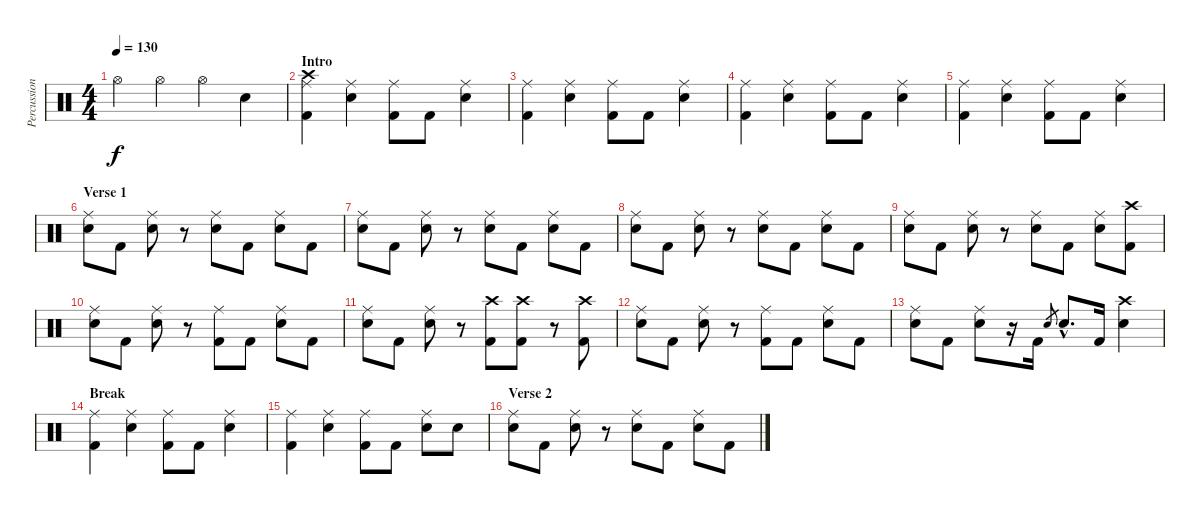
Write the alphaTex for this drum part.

\track ("Percussion" "Percussion") {instrument percussion}
\staff {score}
\articulation defaults
\ts (4 4)
\tempo 130
\clef neutral
\ks c "Hi-Hat (open)".4{dy f} "Hi-Hat (open)".4 "Hi-Hat (open)".4 "Electric Snare (hit)".4
|
\section ("" "Intro")
("Ride (middle)" "Crash high (hit)" "Kick (hit) 2").4 ("Ride (middle)" "Electric Snare (hit)").4 ("Ride (middle)" "Kick (hit) 2").8 "Kick (hit) 2".8 ("Ride (middle)" "Electric Snare (hit)").4 |
("Ride (middle)" "Kick (hit) 2").4 ("Ride (middle)" "Electric Snare (hit)").4 ("Ride (middle)" "Kick (hit) 2").8 "Kick (hit) 2".8 ("Ride (middle)" "Electric Snare (hit)").4 |
("Ride (middle)" "Kick (hit) 2").4 ("Ride (middle)" "Electric Snare (hit)").4 ("Ride (middle)" "Kick (hit) 2").8 "Kick (hit) 2".8 ("Ride (middle)" "Electric Snare (hit)").4 |
("Ride (middle)" "Kick (hit) 2").4 ("Ride (middle)" "Electric Snare (hit)").4 ("Ride (middle)" "Kick (hit) 2").8 "Kick (hit) 2".8 ("Ride (middle)" "Electric Snare (hit)").4 |
\section ("" "Verse 1")
("Ride (middle)" "Electric Snare (hit)").8 "Kick (hit) 2".8 ("Ride (middle)" "Electric Snare (hit)").8 r.8 ("Ride (middle)" "Electric Snare (hit)").8 "Kick (hit) 2".8 ("Ride (middle)" "Electric Snare (hit)").8 "Kick (hit) 2".8 |
("Ride (middle)" "Electric Snare (hit)").8 "Kick (hit) 2".8 ("Ride (middle)" "Electric Snare (hit)").8 r.8 ("Ride (middle)" "Electric Snare (hit)").8 "Kick (hit) 2".8 ("Ride (middle)" "Electric Snare (hit)").8 "Kick (hit) 2".8 |
("Ride (middle)" "Electric Snare (hit)").8 "Kick (hit) 2".8 ("Ride (middle)" "Electric Snare (hit)").8 r.8 ("Ride (middle)" "Electric Snare (hit)").8 "Kick (hit) 2".8 ("Ride (middle)" "Electric Snare (hit)").8 "Kick (hit) 2".8 |
("Ride (middle)" "Electric Snare (hit)").8 "Kick (hit) 2".8 ("Ride (middle)" "Electric Snare (hit)").8 r.8 ("Ride (middle)" "Electric Snare (hit)").8 "Kick (hit) 2".8 ("Ride (middle)" "Electric Snare (hit)").8 ("Crash high (hit)" "Kick (hit) 2").8 |
("Ride (middle)" "Electric Snare (hit)").8 "Kick (hit) 2".8 ("Ride (middle)" "Electric Snare (hit)").8 r.8 ("Ride (middle)" "Kick (hit) 2").8 "Kick (hit) 2".8 ("Ride (middle)" "Electric Snare (hit)").8 "Kick (hit) 2".8 |
("Ride (middle)" "Electric Snare (hit)").8 "Kick (hit) 2".8 ("Ride (middle)" "Electric Snare (hit)").8 r.8 ("Crash high (hit)" "Kick (hit) 2").8 ("Crash high (hit)" "Kick (hit) 2").8 r.8 ("Crash high (hit)" "Kick (hit) 2").8 |
("Ride (middle)" "Electric Snare (hit)").8 "Kick (hit) 2".8 ("Ride (middle)" "Electric Snare (hit)").8 r.8 ("Ride (middle)" "Kick (hit) 2").8 "Kick (hit) 2".8 ("Ride (middle)" "Electric Snare (hit)").8 "Kick (hit) 2".8 |
("Ride (middle)" "Electric Snare (hit)").8 "Kick (hit) 2".8 ("Ride (middle)" "Electric Snare (hit)").8 r.16 "Kick (hit) 2".16 "Electric Snare (hit)".8{gr} "Electric Snare (hit)"{hac}.8{d} "Kick (hit) 2".16 ("Crash high (hit)" "Electric Snare (hit)").4 |
\section ("" "Break")
("Ride (middle)" "Kick (hit) 2").4 ("Ride (middle)" "Electric Snare (hit)").4 ("Ride (middle)" "Kick (hit) 2").8 "Kick (hit) 2".8 ("Ride (middle)" "Electric Snare (hit)").4 |
("Ride (middle)" "Kick (hit) 2").4 ("Ride (middle)" "Electric Snare (hit)").4 ("Ride (middle)" "Kick (hit) 2").8 "Kick (hit) 2".8 ("Ride (middle)" "Electric Snare (hit)").8 "Electric Snare (hit)".8 |
\section ("" "Verse 2")
("Ride (middle)" "Electric Snare (hit)").8 "Kick (hit) 2".8 ("Ride (middle)" "Electric Snare (hit)").8 r.8 ("Ride (middle)" "Electric Snare (hit)").8 "Kick (hit) 2".8 ("Ride (middle)" "Electric Snare (hit)").8 "Kick (hit) 2".8
